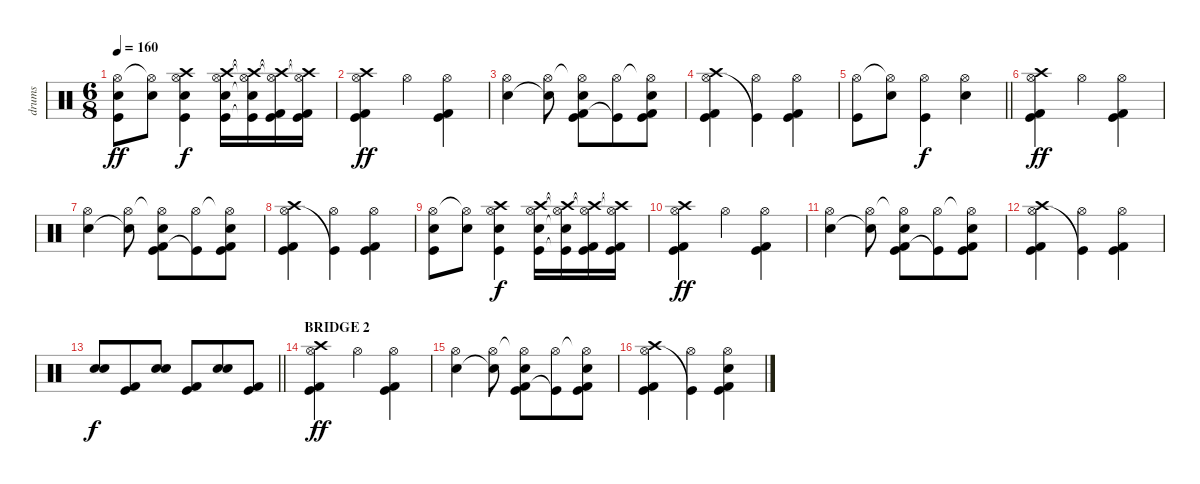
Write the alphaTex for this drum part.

\track ("drums" "drums") {instrument percussion}
\staff {score}
\articulation defaults
\ts (6 8)
\tempo 160
\clef neutral
\ks c
("Hi-Hat (open)" "Electric Snare (hit)" "Kick (hit)").8{dy ff} ("Hi-Hat (open)"{t} "Electric Snare (hit)").8 ("Crash high (hit)" "Hi-Hat (open)" "Electric Snare (hit)" "Kick (hit)").4{dy f} ("Crash high (hit)" "Hi-Hat (open)" "Electric Snare (hit)" "Kick (hit)").16 ("Crash high (hit)"{t} "Hi-Hat (open)"{t} "Electric Snare (hit)"{t} "Kick (hit)"{t}).16 ("Crash high (hit)"{t} "Hi-Hat (open)"{t} "Kick (hit) 2" "Kick (hit)").16 ("Crash high (hit)"{t} "Hi-Hat (open)"{t} "Kick (hit) 2" "Kick (hit)").16 |
("Crash high (hit)" "Hi-Hat (open)" "Kick (hit) 2" "Kick (hit)").4{dy ff} "Hi-Hat (open)".4 ("Hi-Hat (open)" "Kick (hit) 2" "Kick (hit)").4 |
("Hi-Hat (open)" "Electric Snare (hit)").4 ("Hi-Hat (open)" "Electric Snare (hit)"{t}).8 ("Hi-Hat (open)"{t} "Kick (hit) 2" "Electric Snare (hit)" "Kick (hit)").8 ("Hi-Hat (open)" "Kick (hit)"{t}).8 ("Hi-Hat (open)"{t} "Kick (hit) 2" "Electric Snare (hit)" "Kick (hit)").8 |
("Crash high (hit)" "Hi-Hat (open)" "Kick (hit) 2" "Kick (hit)").4 ("Hi-Hat (open)" "Kick (hit)"{t}).4 ("Hi-Hat (open)" "Kick (hit) 2" "Kick (hit)").4 |
\barLineRight lightlight
("Hi-Hat (open)" "Kick (hit)").8 ("Hi-Hat (open)"{t} "Electric Snare (hit)").8 ("Hi-Hat (open)" "Kick (hit)").4{dy f} ("Hi-Hat (open)" "Electric Snare (hit)").4 |
("Crash high (hit)" "Hi-Hat (open)" "Kick (hit) 2" "Kick (hit)").4{dy ff} "Hi-Hat (open)".4 ("Hi-Hat (open)" "Kick (hit) 2" "Kick (hit)").4 |
("Hi-Hat (open)" "Electric Snare (hit)").4 ("Hi-Hat (open)" "Electric Snare (hit)"{t}).8 ("Hi-Hat (open)"{t} "Kick (hit) 2" "Electric Snare (hit)" "Kick (hit)").8 ("Hi-Hat (open)" "Kick (hit)"{t}).8 ("Hi-Hat (open)"{t} "Kick (hit) 2" "Electric Snare (hit)" "Kick (hit)").8 |
("Crash high (hit)" "Hi-Hat (open)" "Kick (hit) 2" "Kick (hit)").4 ("Hi-Hat (open)" "Kick (hit)"{t}).4 ("Hi-Hat (open)" "Kick (hit) 2" "Kick (hit)").4 |
("Hi-Hat (open)" "Electric Snare (hit)" "Kick (hit)").8 ("Hi-Hat (open)"{t} "Electric Snare (hit)").8 ("Crash high (hit)" "Hi-Hat (open)" "Electric Snare (hit)" "Kick (hit)").4{dy f} ("Crash high (hit)" "Hi-Hat (open)" "Electric Snare (hit)" "Kick (hit)").16 ("Crash high (hit)"{t} "Hi-Hat (open)"{t} "Electric Snare (hit)"{t} "Kick (hit)"{t}).16 ("Crash high (hit)"{t} "Hi-Hat (open)"{t} "Kick (hit) 2" "Kick (hit)").16 ("Crash high (hit)"{t} "Hi-Hat (open)"{t} "Kick (hit) 2" "Kick (hit)").16 |
("Crash high (hit)" "Hi-Hat (open)" "Kick (hit) 2" "Kick (hit)").4{dy ff} "Hi-Hat (open)".4 ("Hi-Hat (open)" "Kick (hit) 2" "Kick (hit)").4 |
("Hi-Hat (open)" "Electric Snare (hit)").4 ("Hi-Hat (open)" "Electric Snare (hit)"{t}).8 ("Hi-Hat (open)"{t} "Kick (hit) 2" "Electric Snare (hit)" "Kick (hit)").8 ("Hi-Hat (open)" "Kick (hit)"{t}).8 ("Hi-Hat (open)"{t} "Kick (hit) 2" "Electric Snare (hit)" "Kick (hit)").8 |
("Crash high (hit)" "Hi-Hat (open)" "Kick (hit) 2" "Kick (hit)").4 ("Hi-Hat (open)" "Kick (hit)"{t}).4 ("Hi-Hat (open)" "Kick (hit) 2" "Kick (hit)").4 |
\barLineRight lightlight
("Snare (hit) 2" "Electric Snare (hit)").8{dy f} ("Kick (hit)" "Kick (hit) 2").8 ("Snare (hit) 2" "Electric Snare (hit)").8 ("Kick (hit)" "Kick (hit) 2").8 ("Snare (hit) 2" "Electric Snare (hit)").8 ("Kick (hit)" "Kick (hit) 2").8 |
\section ("" "BRIDGE 2")
("Crash high (hit)" "Hi-Hat (open)" "Kick (hit) 2" "Kick (hit)").4{dy ff} "Hi-Hat (open)".4 ("Hi-Hat (open)" "Kick (hit) 2" "Kick (hit)").4 |
("Hi-Hat (open)" "Electric Snare (hit)").4 ("Hi-Hat (open)" "Electric Snare (hit)"{t}).8 ("Hi-Hat (open)"{t} "Kick (hit) 2" "Electric Snare (hit)" "Kick (hit)").8 ("Hi-Hat (open)" "Kick (hit)"{t}).8 ("Hi-Hat (open)"{t} "Kick (hit) 2" "Electric Snare (hit)" "Kick (hit)").8 |
("Crash high (hit)" "Hi-Hat (open)" "Kick (hit) 2" "Kick (hit)").4 ("Hi-Hat (open)" "Kick (hit)"{t}).4 ("Hi-Hat (open)" "Electric Snare (hit)" "Kick (hit) 2" "Kick (hit)").4
